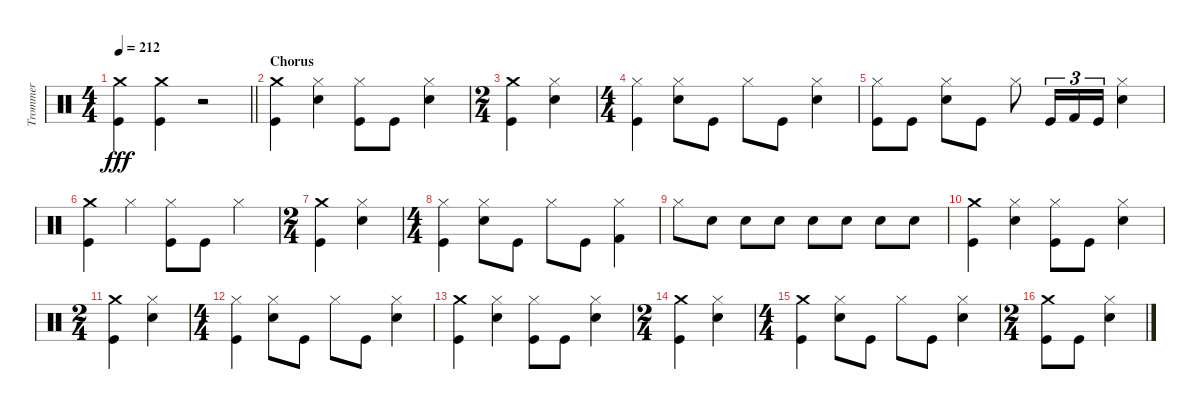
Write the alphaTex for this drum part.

\track ("Trommer" "Trommer") {instrument percussion}
\staff {score}
\articulation defaults
\ts (4 4)
\tempo 212
\clef neutral
\barLineRight lightlight
\ks c
("Kick (hit)" "Crash medium (hit)").4{dy fff} ("Crash medium (hit)" "Kick (hit)").4 r.2 |
\section ("" "Chorus")
("Kick (hit)" "Crash medium (hit)").4 ("Snare (hit) 2" "Hi-Hat (closed)").4 ("Kick (hit)" "Hi-Hat (closed)").8 "Kick (hit)".8 ("Snare (hit) 2" "Hi-Hat (closed)").4 |
\ts (2 4)
("Kick (hit)" "Crash medium (hit)").4 ("Hi-Hat (closed)" "Snare (hit) 2").4 |
\ts (4 4)
("Kick (hit)" "Hi-Hat (closed)").4 ("Snare (hit) 2" "Hi-Hat (closed)").8 "Kick (hit)".8 "Hi-Hat (closed)".8 "Kick (hit)".8 ("Snare (hit) 2" "Hi-Hat (closed)").4 |
("Kick (hit)" "Hi-Hat (closed)").8 "Kick (hit)".8 ("Hi-Hat (closed)" "Snare (hit) 2").8 "Kick (hit)".8 "Hi-Hat (closed)".8 "Kick (hit)".16{tu (3 2)} "Kick (hit) 2".16{tu (3 2)} "Kick (hit)".16{tu (3 2)} ("Snare (hit) 2" "Hi-Hat (closed)").4 |
("Kick (hit)" "Crash medium (hit)").4 "Hi-Hat (closed)".4 ("Hi-Hat (closed)" "Kick (hit)").8 "Kick (hit)".8 "Hi-Hat (closed)".4 |
\ts (2 4)
("Kick (hit)" "Crash medium (hit)").4 ("Snare (hit) 2" "Hi-Hat (closed)").4 |
\ts (4 4)
("Kick (hit)" "Hi-Hat (closed)").4 ("Snare (hit) 2" "Hi-Hat (closed)").8 "Kick (hit)".8 "Hi-Hat (closed)".8 "Kick (hit)".8 ("Kick (hit) 2" "Hi-Hat (closed)").4 |
"Hi-Hat (closed)".8 "Snare (hit) 2".8 "Snare (hit) 2".8 "Snare (hit) 2".8 "Snare (hit) 2".8 "Snare (hit) 2".8 "Snare (hit) 2".8 "Snare (hit) 2".8 |
("Crash medium (hit)" "Kick (hit)").4 ("Hi-Hat (closed)" "Snare (hit) 2").4 ("Hi-Hat (closed)" "Kick (hit)").8 "Kick (hit)".8 ("Snare (hit) 2" "Hi-Hat (closed)").4 |
\ts (2 4)
("Kick (hit)" "Crash medium (hit)").4 ("Snare (hit) 2" "Hi-Hat (closed)").4 |
\ts (4 4)
("Hi-Hat (closed)" "Kick (hit)").4 ("Snare (hit) 2" "Hi-Hat (closed)").8 "Kick (hit)".8 "Hi-Hat (closed)".8 "Kick (hit)".8 ("Snare (hit) 2" "Hi-Hat (closed)").4 |
("Kick (hit)" "Crash medium (hit)").4 ("Snare (hit) 2" "Hi-Hat (closed)").4 ("Kick (hit)" "Hi-Hat (closed)").8 "Kick (hit)".8 ("Hi-Hat (closed)" "Snare (hit) 2").4 |
\ts (2 4)
("Kick (hit)" "Crash medium (hit)").4 ("Snare (hit) 2" "Hi-Hat (closed)").4 |
\ts (4 4)
("Kick (hit)" "Crash medium (hit)").4 ("Snare (hit) 2" "Hi-Hat (closed)").8 "Kick (hit)".8 "Hi-Hat (closed)".8 "Kick (hit)".8 ("Hi-Hat (closed)" "Snare (hit) 2").4 |
\ts (2 4)
("Kick (hit)" "Crash medium (hit)").8 "Kick (hit)".8 ("Snare (hit) 2" "Hi-Hat (closed)").4
